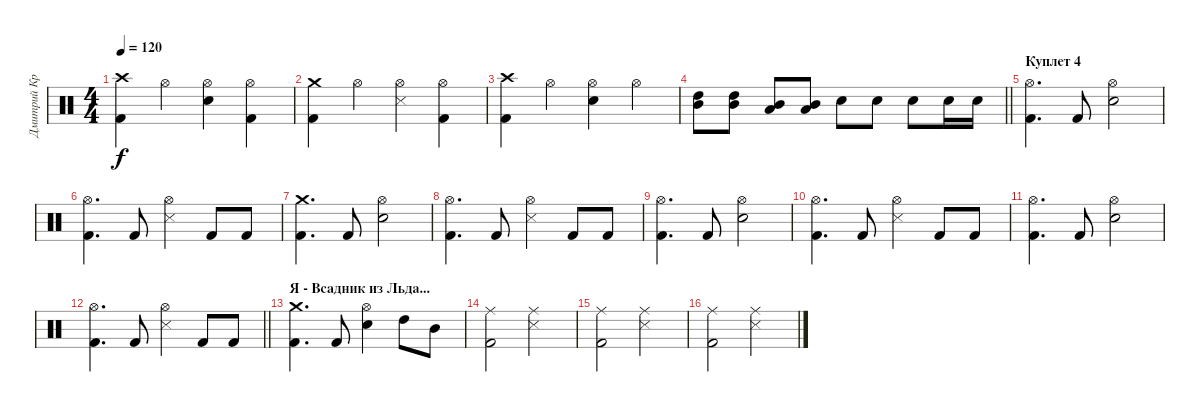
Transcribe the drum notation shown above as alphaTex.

\track ("Дмитрий Кривенков       (Ударные)" "Дмитрий Кр") {instrument percussion}
\staff {score}
\articulation defaults
\ts (4 4)
\tempo 120
\clef neutral
\ks c
("Crash high (hit)" "Kick (hit) 2").4{dy f} "Hi-Hat (open)".4 ("Hi-Hat (open)" "Electric Snare (hit)").4 ("Hi-Hat (open)" "Kick (hit) 2").4 |
("Crash medium (hit)" "Kick (hit) 2").4 "Hi-Hat (open)".4 ("Snare (side stick) 3" "Hi-Hat (open)").4 ("Hi-Hat (open)" "Kick (hit) 2").4 |
("Crash high (hit)" "Kick (hit) 2").4 "Hi-Hat (open)".4 ("Hi-Hat (open)" "Electric Snare (hit)").4 "Hi-Hat (open)".4 |
\barLineRight lightlight
("High Tom (hit)" "Mid Tom (hit)").8 ("High Tom (hit)" "Mid Tom (hit)").8 ("Mid Tom (hit)" "Low Tom (hit)").8 ("Mid Tom (hit)" "Low Tom (hit)").8 "Electric Snare (hit)".8 "Electric Snare (hit)".8 "Electric Snare (hit)".8 "Electric Snare (hit)".16 "Electric Snare (hit)".16 |
\section ("" "Куплет 4")
("Hi-Hat (open)" "Kick (hit) 2").4{d} "Kick (hit) 2".8 ("Hi-Hat (open)" "Electric Snare (hit)").2 |
("Hi-Hat (open)" "Kick (hit) 2").4{d} "Kick (hit) 2".8 ("Snare (side stick) 3" "Hi-Hat (open)").4 "Kick (hit) 2".8 "Kick (hit) 2".8 |
("Crash medium (hit)" "Kick (hit) 2").4{d} "Kick (hit) 2".8 ("Hi-Hat (open)" "Electric Snare (hit)").2 |
("Hi-Hat (open)" "Kick (hit) 2").4{d} "Kick (hit) 2".8 ("Snare (side stick) 3" "Hi-Hat (open)").4 "Kick (hit) 2".8 "Kick (hit) 2".8 |
("Hi-Hat (open)" "Kick (hit) 2").4{d} "Kick (hit) 2".8 ("Hi-Hat (open)" "Electric Snare (hit)").2 |
("Hi-Hat (open)" "Kick (hit) 2").4{d} "Kick (hit) 2".8 ("Snare (side stick) 3" "Hi-Hat (open)").4 "Kick (hit) 2".8 "Kick (hit) 2".8 |
("Hi-Hat (open)" "Kick (hit) 2").4{d} "Kick (hit) 2".8 ("Hi-Hat (open)" "Electric Snare (hit)").2 |
\barLineRight lightlight
("Hi-Hat (open)" "Kick (hit) 2").4{d} "Kick (hit) 2".8 ("Snare (side stick) 3" "Hi-Hat (open)").4 "Kick (hit) 2".8 "Kick (hit) 2".8 |
\section ("" "Я - Всадник из Льда...")
("Crash medium (hit)" "Kick (hit) 2").4{d} "Kick (hit) 2".8 ("Hi-Hat (open)" "Electric Snare (hit)").4 "High Tom (hit)".8 "Mid Tom (hit)".8 |
("Ride (middle)" "Kick (hit) 2").2 ("Snare (side stick) 3" "Ride (middle)").2 |
("Ride (middle)" "Kick (hit) 2").2 ("Snare (side stick) 3" "Ride (middle)").2 |
("Ride (middle)" "Kick (hit) 2").2 ("Snare (side stick) 3" "Ride (middle)").2
